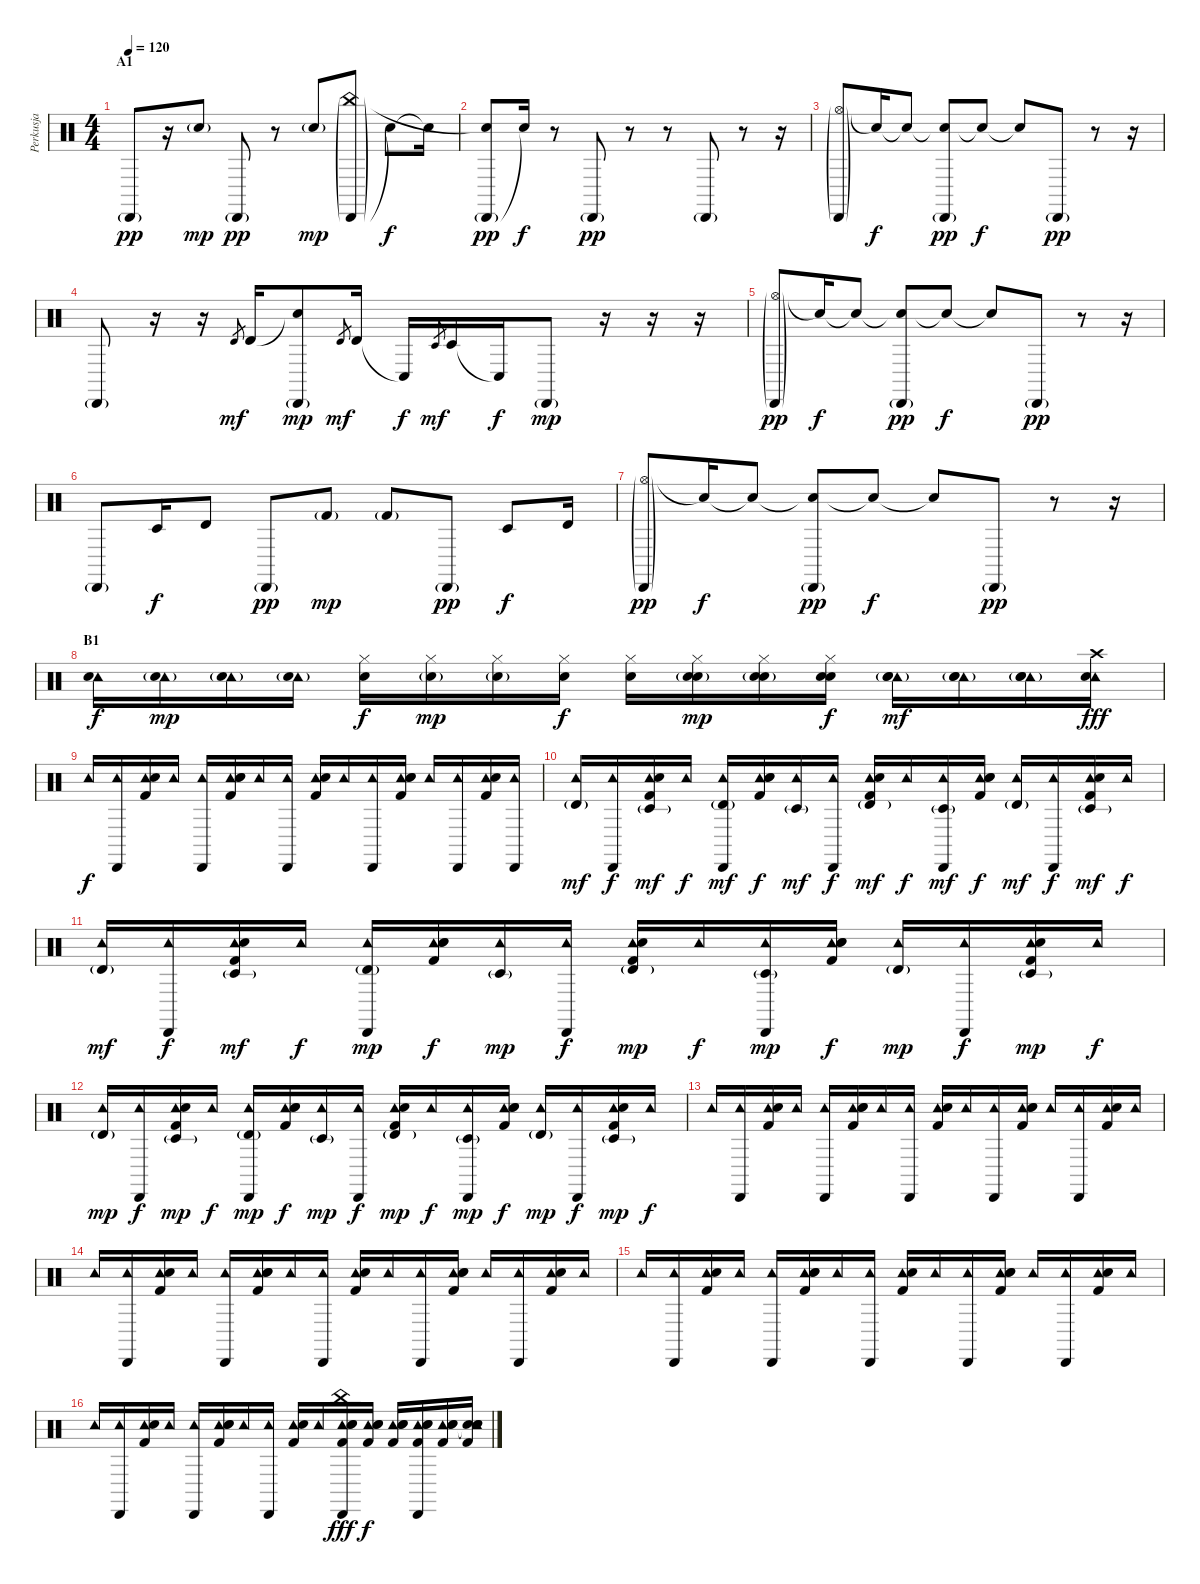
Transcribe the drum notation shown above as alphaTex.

\track ("Perkusja" "Perkusja") {instrument percussion}
\staff {score}
\articulation defaults
\ts (4 4)
\section ("" "A1")
\tempo 120
\clef neutral
\ks c "Cabasa (hit)"{g}.8{dy pp}
r.16 "Snare (hit) 2"{g}.8{dy mp} "Cabasa (hit)"{g}.8{dy pp} r.8 "Snare (hit) 2"{g}.8{dy mp} ("Cabasa (hit)"{g} "China (hit)"{g}).8 "Snare (hit)"{t}.8{dy f} "Snare (hit)"{t}.16 |
("Cabasa (hit)"{g} "Snare (hit)"{t}).8{dy pp} "Snare (hit)"{t}.16{dy f} r.8 "Cabasa (hit)"{g}.8{dy pp} r.8 r.8 "Cabasa (hit)"{g}.8 r.8 r.16 |
("Hi-Hat (open)"{g} "Cabasa (hit)"{g}).8 "Snare (hit)"{t}.16{dy f} "Snare (hit)"{t}.8 ("Snare (hit)"{t} "Cabasa (hit)"{g}).8{dy pp} "Snare (hit)"{t}.8{dy f} "Snare (hit)"{t}.8 "Cabasa (hit)"{g}.8{dy pp} r.8 r.16 |
"Cabasa (hit)"{g}.8 r.16 r.16 "Timbale high (hit)".8{gr dy mf} "Timbale high (hit)".16 ("Snare (hit)"{t} "Cabasa (hit)"{g}).8{dy mp} "Timbale high (hit)".8{gr dy mf} "Timbale high (hit)".16 "Conga low (hit)"{t}.16{dy f} "Timbale low (hit)".8{gr dy mf} "Timbale low (hit)".16 "Conga low (hit)"{t}.16{dy f} "Cabasa (hit)"{g}.8{dy mp} r.16 r.16 r.16 |
("Hi-Hat (open)"{g} "Cabasa (hit)"{g}).8{dy pp} "Snare (hit)"{t}.16{dy f} "Snare (hit)"{t}.8 ("Snare (hit)"{t} "Cabasa (hit)"{g}).8{dy pp} "Snare (hit)"{t}.8{dy f} "Snare (hit)"{t}.8 "Cabasa (hit)"{g}.8{dy pp} r.8 r.16 |
"Cabasa (hit)"{g}.8 "Timbale low (hit)".16{dy f} "Timbale high (hit)".8 "Cabasa (hit)"{g}.8{dy pp} "Kick (hit) 2"{g}.8{dy mp} "Kick (hit) 2"{g}.8 "Cabasa (hit)"{g}.8{dy pp} "Timbale low (hit)".8{dy f} "Timbale high (hit)".16 |
("Hi-Hat (open)"{g} "Cabasa (hit)"{g}).8{dy pp} "Snare (hit)"{t}.16{dy f} "Snare (hit)"{t}.8 ("Snare (hit)"{t} "Cabasa (hit)"{g}).8{dy pp} "Snare (hit)"{t}.8{dy f} "Snare (hit)"{t}.8 "Cabasa (hit)"{g}.8{dy pp} r.8 r.16 |
\section ("" "B1")
("Tambourine (hit)" "Electric Snare (hit)").16{dy f} ("Tambourine (hit)" "Electric Snare (hit)"{g}).16{dy mp} ("Tambourine (hit)" "Electric Snare (hit)"{g}).16 ("Tambourine (hit)" "Electric Snare (hit)"{g}).16 ("Hi-Hat (closed)" "Electric Snare (hit)").16{dy f} ("Hi-Hat (closed)" "Electric Snare (hit)"{g}).16{dy mp} ("Hi-Hat (closed)" "Electric Snare (hit)"{g}).16 ("Hi-Hat (closed)" "Snare (hit) 2").16{dy f} ("Hi-Hat (closed)" "Snare (hit) 2").16 ("Hi-Hat (closed)" "Snare (hit) 2"{g} "Snare (hit) 2").16{dy mp} ("Hi-Hat (closed)" "Snare (hit) 2"{g} "Electric Snare (hit)"{g}).16 ("Hi-Hat (closed)" "Electric Snare (hit)" "Snare (hit) 2").16{dy f} ("Tambourine (hit)" "Electric Snare (hit)"{g} "Snare (hit) 2"{g}).16{dy mf} ("Tambourine (hit)" "Electric Snare (hit)"{g} "Snare (hit) 2"{g}).16 ("Tambourine (hit)" "Electric Snare (hit)"{g} "Snare (hit) 2"{g}).16 ("Tambourine (hit)" "Electric Snare (hit)" "Crash high (hit)").16{dy fff} |
"Tambourine (hit)".16{dy f} ("Tambourine (hit)" "Cabasa (hit)").16 ("Tambourine (hit)" "Kick (hit) 2" "Snare (hit) 2").16 "Tambourine (hit)".16 ("Tambourine (hit)" "Cabasa (hit)").16 ("Tambourine (hit)" "Kick (hit) 2" "Electric Snare (hit)" "Snare (hit) 2").16 "Tambourine (hit)".16 ("Tambourine (hit)" "Cabasa (hit)").16 ("Tambourine (hit)" "Kick (hit) 2" "Snare (hit) 2").16 "Tambourine (hit)".16 ("Tambourine (hit)" "Cabasa (hit)").16 ("Tambourine (hit)" "Kick (hit) 2" "Electric Snare (hit)" "Snare (hit) 2").16 "Tambourine (hit)".16 ("Tambourine (hit)" "Cabasa (hit)").16 ("Tambourine (hit)" "Kick (hit) 2" "Snare (hit) 2").16 ("Tambourine (hit)" "Cabasa (hit)").16 |
("Tambourine (hit)" "Timbale high (hit)"{g}).16{dy mf} ("Tambourine (hit)" "Cabasa (hit)").16{dy f} ("Tambourine (hit)" "Kick (hit) 2" "Snare (hit) 2" "Timbale low (hit)"{g}).16{dy mf} "Tambourine (hit)".16{dy f} ("Tambourine (hit)" "Timbale high (hit)"{g} "Cabasa (hit)").16{dy mf} ("Tambourine (hit)" "Kick (hit) 2" "Electric Snare (hit)" "Snare (hit) 2").16{dy f} ("Tambourine (hit)" "Timbale low (hit)"{g}).16{dy mf} ("Tambourine (hit)" "Cabasa (hit)").16{dy f} ("Tambourine (hit)" "Kick (hit) 2" "Snare (hit) 2" "Timbale high (hit)"{g}).16{dy mf} "Tambourine (hit)".16{dy f} ("Tambourine (hit)" "Timbale low (hit)"{g} "Cabasa (hit)").16{dy mf} ("Tambourine (hit)" "Kick (hit) 2" "Electric Snare (hit)" "Snare (hit) 2").16{dy f} ("Tambourine (hit)" "Timbale high (hit)"{g}).16{dy mf} ("Tambourine (hit)" "Cabasa (hit)").16{dy f} ("Tambourine (hit)" "Kick (hit) 2" "Snare (hit) 2" "Timbale low (hit)"{g}).16{dy mf} "Tambourine (hit)".16{dy f} |
("Tambourine (hit)" "Timbale high (hit)"{g}).16{dy mf} ("Tambourine (hit)" "Cabasa (hit)").16{dy f} ("Tambourine (hit)" "Kick (hit) 2" "Snare (hit) 2" "Timbale low (hit)"{g}).16{dy mf} "Tambourine (hit)".16{dy f} ("Tambourine (hit)" "Timbale high (hit)"{g} "Cabasa (hit)").16{dy mp} ("Tambourine (hit)" "Kick (hit) 2" "Electric Snare (hit)" "Snare (hit) 2").16{dy f} ("Tambourine (hit)" "Timbale low (hit)"{g}).16{dy mp} ("Tambourine (hit)" "Cabasa (hit)").16{dy f} ("Tambourine (hit)" "Kick (hit) 2" "Snare (hit) 2" "Timbale high (hit)"{g}).16{dy mp} "Tambourine (hit)".16{dy f} ("Tambourine (hit)" "Timbale low (hit)"{g} "Cabasa (hit)").16{dy mp} ("Tambourine (hit)" "Kick (hit) 2" "Electric Snare (hit)" "Snare (hit) 2").16{dy f} ("Tambourine (hit)" "Timbale high (hit)"{g}).16{dy mp} ("Tambourine (hit)" "Cabasa (hit)").16{dy f} ("Tambourine (hit)" "Kick (hit) 2" "Snare (hit) 2" "Timbale low (hit)"{g}).16{dy mp} "Tambourine (hit)".16{dy f} |
("Tambourine (hit)" "Timbale high (hit)"{g}).16{dy mp} ("Tambourine (hit)" "Cabasa (hit)").16{dy f} ("Tambourine (hit)" "Kick (hit) 2" "Snare (hit) 2" "Timbale low (hit)"{g}).16{dy mp} "Tambourine (hit)".16{dy f} ("Tambourine (hit)" "Timbale high (hit)"{g} "Cabasa (hit)").16{dy mp} ("Tambourine (hit)" "Kick (hit) 2" "Electric Snare (hit)" "Snare (hit) 2").16{dy f} ("Tambourine (hit)" "Timbale low (hit)"{g}).16{dy mp} ("Tambourine (hit)" "Cabasa (hit)").16{dy f} ("Tambourine (hit)" "Kick (hit) 2" "Snare (hit) 2" "Timbale high (hit)"{g}).16{dy mp} "Tambourine (hit)".16{dy f} ("Tambourine (hit)" "Timbale low (hit)"{g} "Cabasa (hit)").16{dy mp} ("Tambourine (hit)" "Kick (hit) 2" "Electric Snare (hit)" "Snare (hit) 2").16{dy f} ("Tambourine (hit)" "Timbale high (hit)"{g}).16{dy mp} ("Tambourine (hit)" "Cabasa (hit)").16{dy f} ("Tambourine (hit)" "Kick (hit) 2" "Snare (hit) 2" "Timbale low (hit)"{g}).16{dy mp} "Tambourine (hit)".16{dy f} |
"Tambourine (hit)".16 ("Tambourine (hit)" "Cabasa (hit)").16 ("Tambourine (hit)" "Kick (hit) 2" "Snare (hit) 2").16 "Tambourine (hit)".16 ("Tambourine (hit)" "Cabasa (hit)").16 ("Tambourine (hit)" "Kick (hit) 2" "Electric Snare (hit)" "Snare (hit) 2").16 "Tambourine (hit)".16 ("Tambourine (hit)" "Cabasa (hit)").16 ("Tambourine (hit)" "Kick (hit) 2" "Snare (hit) 2").16 "Tambourine (hit)".16 ("Tambourine (hit)" "Cabasa (hit)").16 ("Tambourine (hit)" "Kick (hit) 2" "Electric Snare (hit)" "Snare (hit) 2").16 "Tambourine (hit)".16 ("Tambourine (hit)" "Cabasa (hit)").16 ("Tambourine (hit)" "Kick (hit) 2" "Snare (hit) 2").16 "Tambourine (hit)".16 |
"Tambourine (hit)".16 ("Tambourine (hit)" "Cabasa (hit)").16 ("Tambourine (hit)" "Kick (hit) 2" "Snare (hit) 2").16 "Tambourine (hit)".16 ("Tambourine (hit)" "Cabasa (hit)").16 ("Tambourine (hit)" "Kick (hit) 2" "Electric Snare (hit)" "Snare (hit) 2").16 "Tambourine (hit)".16 ("Tambourine (hit)" "Cabasa (hit)").16 ("Tambourine (hit)" "Kick (hit) 2" "Snare (hit) 2").16 "Tambourine (hit)".16 ("Tambourine (hit)" "Cabasa (hit)").16 ("Tambourine (hit)" "Kick (hit) 2" "Electric Snare (hit)" "Snare (hit) 2").16 "Tambourine (hit)".16 ("Tambourine (hit)" "Cabasa (hit)").16 ("Tambourine (hit)" "Kick (hit) 2" "Snare (hit) 2").16 "Tambourine (hit)".16 |
"Tambourine (hit)".16 ("Tambourine (hit)" "Cabasa (hit)").16 ("Tambourine (hit)" "Kick (hit) 2" "Snare (hit) 2").16 "Tambourine (hit)".16 ("Tambourine (hit)" "Cabasa (hit)").16 ("Tambourine (hit)" "Kick (hit) 2" "Electric Snare (hit)" "Snare (hit) 2").16 "Tambourine (hit)".16 ("Tambourine (hit)" "Cabasa (hit)").16 ("Tambourine (hit)" "Kick (hit) 2" "Snare (hit) 2").16 "Tambourine (hit)".16 ("Tambourine (hit)" "Cabasa (hit)").16 ("Tambourine (hit)" "Kick (hit) 2" "Electric Snare (hit)" "Snare (hit) 2").16 "Tambourine (hit)".16 ("Tambourine (hit)" "Cabasa (hit)").16 ("Tambourine (hit)" "Kick (hit) 2" "Snare (hit) 2").16 "Tambourine (hit)".16 |
"Tambourine (hit)".16 ("Tambourine (hit)" "Cabasa (hit)").16 ("Tambourine (hit)" "Kick (hit) 2" "Snare (hit) 2").16 "Tambourine (hit)".16 ("Tambourine (hit)" "Cabasa (hit)").16 ("Tambourine (hit)" "Kick (hit) 2" "Electric Snare (hit)" "Snare (hit) 2").16 "Tambourine (hit)".16 ("Tambourine (hit)" "Cabasa (hit)").16 ("Tambourine (hit)" "Kick (hit) 2" "Snare (hit) 2").16 "Tambourine (hit)".16 ("China (hit)" "Tambourine (hit)" "Kick (hit) 2" "Electric Snare (hit)" "Snare (hit) 2" "Cabasa (hit)").16{dy fff} ("Tambourine (hit)" "Kick (hit) 2" "Electric Snare (hit)" "Snare (hit) 2").16{dy f} ("Tambourine (hit)" "Kick (hit) 2" "Electric Snare (hit)" "Snare (hit) 2").16 ("Tambourine (hit)" "Kick (hit) 2" "Electric Snare (hit)" "Snare (hit) 2" "Cabasa (hit)").16 ("Tambourine (hit)" "Kick (hit) 2" "Electric Snare (hit)" "Snare (hit) 2").16 ("Snare (hit)"{t} "Tambourine (hit)" "Kick (hit) 2" "Electric Snare (hit)" "Snare (hit) 2").16
